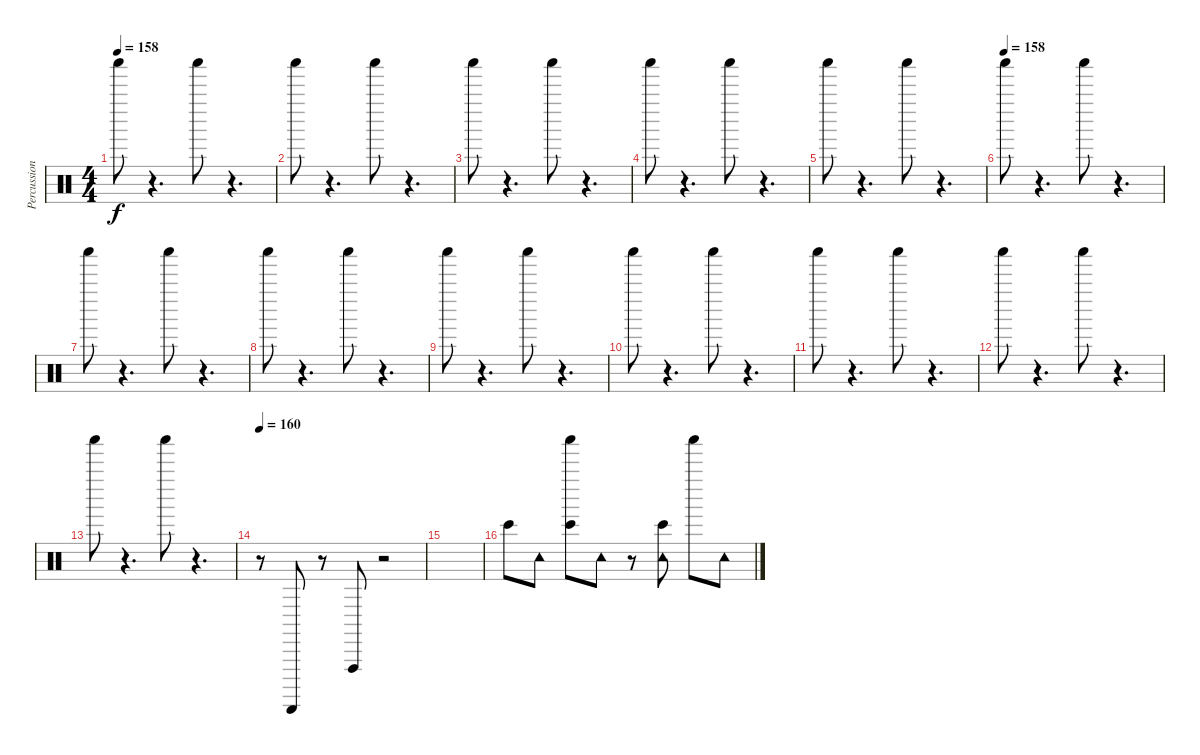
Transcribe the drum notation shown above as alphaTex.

\track ("Percussions" "Percussion") {instrument percussion}
\staff {score}
\articulation defaults
\ts (4 4)
\tempo 158
\clef neutral
\ks c "Shaker (hit)".8{dy f}
r.4{d} "Shaker (hit)".8 r.4{d} |
"Shaker (hit)".8 r.4{d} "Shaker (hit)".8 r.4{d} |
"Shaker (hit)".8 r.4{d} "Shaker (hit)".8 r.4{d} |
"Shaker (hit)".8 r.4{d} "Shaker (hit)".8 r.4{d} |
"Shaker (hit)".8 r.4{d} "Shaker (hit)".8 r.4{d} |
\tempo (158)
"Shaker (hit)".8 r.4{d} "Shaker (hit)".8 r.4{d} |
"Shaker (hit)".8 r.4{d} "Shaker (hit)".8 r.4{d} |
"Shaker (hit)".8 r.4{d} "Shaker (hit)".8 r.4{d} |
"Shaker (hit)".8 r.4{d} "Shaker (hit)".8 r.4{d} |
"Shaker (hit)".8 r.4{d} "Shaker (hit)".8 r.4{d} |
"Shaker (hit)".8 r.4{d} "Shaker (hit)".8 r.4{d} |
"Shaker (hit)".8 r.4{d} "Shaker (hit)".8 r.4{d} |
"Shaker (hit)".8 r.4{d} "Shaker (hit)".8 r.4{d} |
\tempo 160
r.8 "Guiro (scrap-return)".8 r.8 "Vibraslap (hit)".8 r.2 |
|
"Bongo High (hit)".8 "Tambourine (hit)".8 ("Bongo High (hit)" "Shaker (hit)").8 "Tambourine (hit)".8 r.8 ("Bongo High (hit)" "Tambourine (hit)").8 "Shaker (hit)".8 "Tambourine (hit)".8
